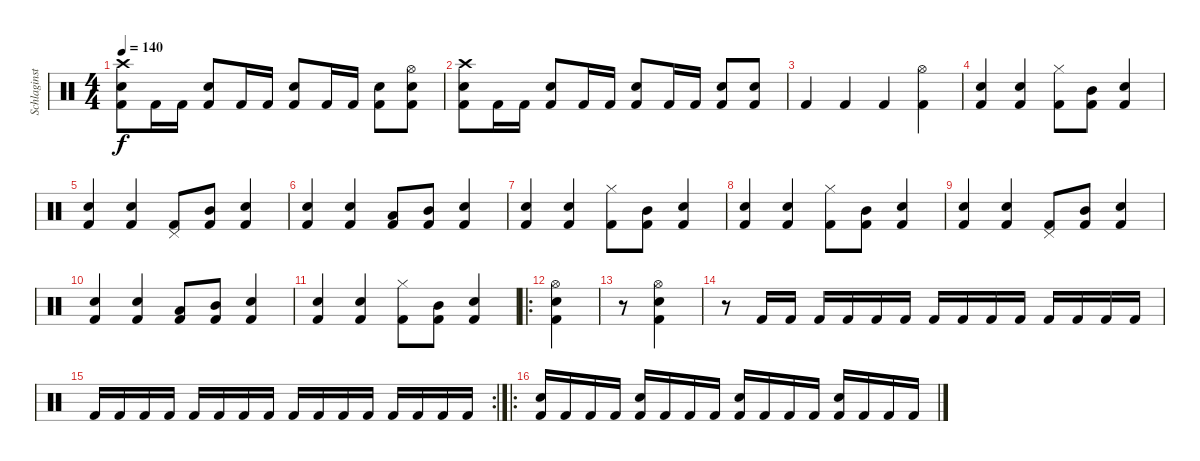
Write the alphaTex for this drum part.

\track ("Schlaginstrumente - Auswahl" "Schlaginst") {instrument percussion}
\staff {score}
\articulation defaults
\ts (4 4)
\tempo 140
\clef neutral
\ks c
("Kick (hit) 2" "Snare (hit) 2" "Crash high (hit)").8{dy f} "Kick (hit) 2".16 "Kick (hit) 2".16 ("Kick (hit) 2" "Snare (hit) 2").8 "Kick (hit) 2".16 "Kick (hit) 2".16 ("Kick (hit) 2" "Snare (hit) 2").8 "Kick (hit) 2".16 "Kick (hit) 2".16 ("Kick (hit) 2" "Snare (hit) 2").8 ("Kick (hit) 2" "Snare (hit) 2" "Hi-Hat (open)").8 |
("Kick (hit) 2" "Snare (hit) 2" "Crash high (hit)").8 "Kick (hit) 2".16 "Kick (hit) 2".16 ("Kick (hit) 2" "Snare (hit) 2").8 "Kick (hit) 2".16 "Kick (hit) 2".16 ("Kick (hit) 2" "Snare (hit) 2").8 "Kick (hit) 2".16 "Kick (hit) 2".16 ("Kick (hit) 2" "Snare (hit) 2").8 ("Kick (hit) 2" "Snare (hit) 2").8 |
"Kick (hit) 2".4 "Kick (hit) 2".4 "Kick (hit) 2".4 ("Kick (hit) 2" "Hi-Hat (open)").4 |
("Kick (hit) 2" "Snare (hit) 2").4 ("Kick (hit) 2" "Snare (hit) 2").4 ("Kick (hit) 2" "Hi-Hat (closed)").8 ("Kick (hit) 2" "Mid Tom (hit)").8 ("Kick (hit) 2" "Snare (hit) 2").4 |
("Kick (hit) 2" "Snare (hit) 2").4 ("Kick (hit) 2" "Snare (hit) 2").4 ("Kick (hit) 2" "Pedal Hi-Hat (hit)").8 ("Kick (hit) 2" "Mid Tom (hit)").8 ("Kick (hit) 2" "Snare (hit) 2").4 |
("Kick (hit) 2" "Snare (hit) 2").4 ("Kick (hit) 2" "Snare (hit) 2").4 ("Kick (hit) 2" "Low Tom (hit)").8 ("Kick (hit) 2" "Mid Tom (hit)").8 ("Kick (hit) 2" "Snare (hit) 2").4 |
("Kick (hit) 2" "Snare (hit) 2").4 ("Kick (hit) 2" "Snare (hit) 2").4 ("Kick (hit) 2" "Hi-Hat (closed)").8 ("Kick (hit) 2" "Mid Tom (hit)").8 ("Kick (hit) 2" "Snare (hit) 2").4 |
("Kick (hit) 2" "Snare (hit) 2").4 ("Kick (hit) 2" "Snare (hit) 2").4 ("Kick (hit) 2" "Hi-Hat (closed)").8 ("Kick (hit) 2" "Mid Tom (hit)").8 ("Kick (hit) 2" "Snare (hit) 2").4 |
("Kick (hit) 2" "Snare (hit) 2").4 ("Kick (hit) 2" "Snare (hit) 2").4 ("Kick (hit) 2" "Pedal Hi-Hat (hit)").8 ("Kick (hit) 2" "Mid Tom (hit)").8 ("Kick (hit) 2" "Snare (hit) 2").4 |
("Kick (hit) 2" "Snare (hit) 2").4 ("Kick (hit) 2" "Snare (hit) 2").4 ("Kick (hit) 2" "Low Tom (hit)").8 ("Kick (hit) 2" "Mid Tom (hit)").8 ("Kick (hit) 2" "Snare (hit) 2").4 |
("Kick (hit) 2" "Snare (hit) 2").4 ("Kick (hit) 2" "Snare (hit) 2").4 ("Kick (hit) 2" "Hi-Hat (closed)").8 ("Kick (hit) 2" "Mid Tom (hit)").8 ("Kick (hit) 2" "Snare (hit) 2").4 |
\ro
("Snare (hit) 2" "Kick (hit) 2" "Hi-Hat (open)").4 |
r.8 ("Snare (hit) 2" "Kick (hit) 2" "Hi-Hat (open)").4 |
r.8 "Kick (hit) 2".16 "Kick (hit) 2".16 "Kick (hit) 2".16 "Kick (hit) 2".16 "Kick (hit) 2".16 "Kick (hit) 2".16 "Kick (hit) 2".16 "Kick (hit) 2".16 "Kick (hit) 2".16 "Kick (hit) 2".16 "Kick (hit) 2".16 "Kick (hit) 2".16 "Kick (hit) 2".16 "Kick (hit) 2".16 |
\rc 2 "Kick (hit) 2".16 "Kick (hit) 2".16 "Kick (hit) 2".16 "Kick (hit) 2".16 "Kick (hit) 2".16 "Kick (hit) 2".16 "Kick (hit) 2".16 "Kick (hit) 2".16 "Kick (hit) 2".16 "Kick (hit) 2".16 "Kick (hit) 2".16 "Kick (hit) 2".16 "Kick (hit) 2".16 "Kick (hit) 2".16 "Kick (hit) 2".16 "Kick (hit) 2".16
|
\ro
("Kick (hit) 2" "Snare (hit) 2").16 "Kick (hit) 2".16 "Kick (hit) 2".16 "Kick (hit) 2".16 ("Kick (hit) 2" "Snare (hit) 2").16 "Kick (hit) 2".16 "Kick (hit) 2".16 "Kick (hit) 2".16 ("Kick (hit) 2" "Snare (hit) 2").16 "Kick (hit) 2".16 "Kick (hit) 2".16 "Kick (hit) 2".16 ("Kick (hit) 2" "Snare (hit) 2").16 "Kick (hit) 2".16 "Kick (hit) 2".16 "Kick (hit) 2".16
